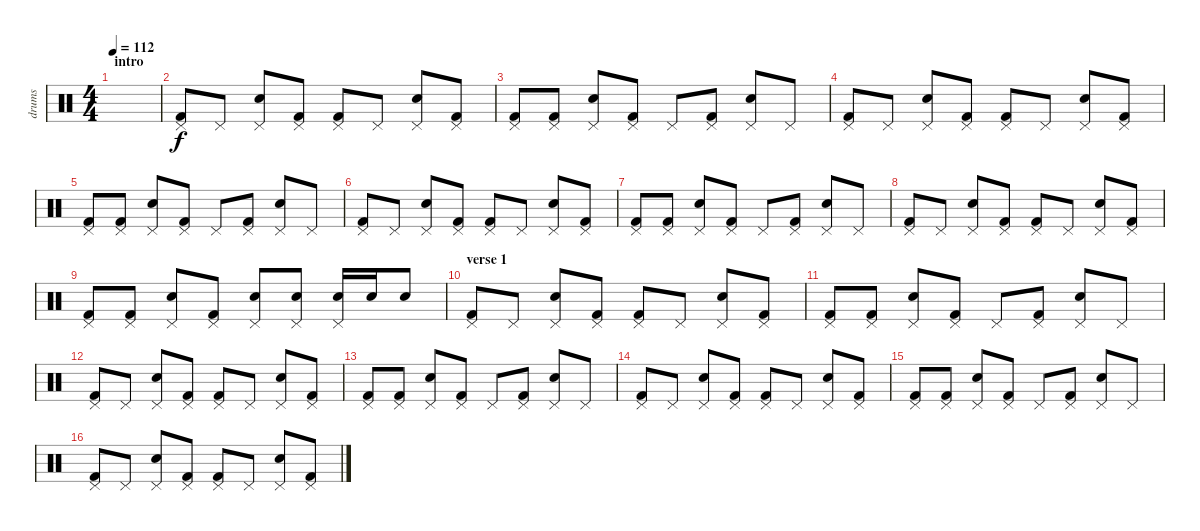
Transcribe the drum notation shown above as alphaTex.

\track ("drums" "drums") {instrument percussion}
\staff {score}
\articulation defaults
\ts (4 4)
\section ("" "intro")
\tempo 112
\clef neutral
\ks c
|
("Kick (hit) 2" "Pedal Hi-Hat (hit)").8 "Pedal Hi-Hat (hit)".8 ("Snare (hit) 2" "Pedal Hi-Hat (hit)").8 ("Kick (hit) 2" "Pedal Hi-Hat (hit)").8 ("Kick (hit) 2" "Pedal Hi-Hat (hit)").8 "Pedal Hi-Hat (hit)".8 ("Snare (hit) 2" "Pedal Hi-Hat (hit)").8 ("Kick (hit) 2" "Pedal Hi-Hat (hit)").8 |
("Kick (hit) 2" "Pedal Hi-Hat (hit)").8 ("Kick (hit) 2" "Pedal Hi-Hat (hit)").8 ("Snare (hit) 2" "Pedal Hi-Hat (hit)").8 ("Kick (hit) 2" "Pedal Hi-Hat (hit)").8 "Pedal Hi-Hat (hit)".8 ("Kick (hit) 2" "Pedal Hi-Hat (hit)").8 ("Snare (hit) 2" "Pedal Hi-Hat (hit)").8 "Pedal Hi-Hat (hit)".8 |
("Kick (hit) 2" "Pedal Hi-Hat (hit)").8 "Pedal Hi-Hat (hit)".8 ("Snare (hit) 2" "Pedal Hi-Hat (hit)").8 ("Kick (hit) 2" "Pedal Hi-Hat (hit)").8 ("Kick (hit) 2" "Pedal Hi-Hat (hit)").8 "Pedal Hi-Hat (hit)".8 ("Snare (hit) 2" "Pedal Hi-Hat (hit)").8 ("Kick (hit) 2" "Pedal Hi-Hat (hit)").8 |
("Kick (hit) 2" "Pedal Hi-Hat (hit)").8 ("Kick (hit) 2" "Pedal Hi-Hat (hit)").8 ("Snare (hit) 2" "Pedal Hi-Hat (hit)").8 ("Kick (hit) 2" "Pedal Hi-Hat (hit)").8 "Pedal Hi-Hat (hit)".8 ("Kick (hit) 2" "Pedal Hi-Hat (hit)").8 ("Snare (hit) 2" "Pedal Hi-Hat (hit)").8 "Pedal Hi-Hat (hit)".8 |
("Kick (hit) 2" "Pedal Hi-Hat (hit)").8 "Pedal Hi-Hat (hit)".8 ("Snare (hit) 2" "Pedal Hi-Hat (hit)").8 ("Kick (hit) 2" "Pedal Hi-Hat (hit)").8 ("Kick (hit) 2" "Pedal Hi-Hat (hit)").8 "Pedal Hi-Hat (hit)".8 ("Snare (hit) 2" "Pedal Hi-Hat (hit)").8 ("Kick (hit) 2" "Pedal Hi-Hat (hit)").8 |
("Kick (hit) 2" "Pedal Hi-Hat (hit)").8 ("Kick (hit) 2" "Pedal Hi-Hat (hit)").8 ("Snare (hit) 2" "Pedal Hi-Hat (hit)").8 ("Kick (hit) 2" "Pedal Hi-Hat (hit)").8 "Pedal Hi-Hat (hit)".8 ("Kick (hit) 2" "Pedal Hi-Hat (hit)").8 ("Snare (hit) 2" "Pedal Hi-Hat (hit)").8 "Pedal Hi-Hat (hit)".8 |
("Kick (hit) 2" "Pedal Hi-Hat (hit)").8 "Pedal Hi-Hat (hit)".8 ("Snare (hit) 2" "Pedal Hi-Hat (hit)").8 ("Kick (hit) 2" "Pedal Hi-Hat (hit)").8 ("Kick (hit) 2" "Pedal Hi-Hat (hit)").8 "Pedal Hi-Hat (hit)".8 ("Snare (hit) 2" "Pedal Hi-Hat (hit)").8 ("Kick (hit) 2" "Pedal Hi-Hat (hit)").8 |
("Kick (hit) 2" "Pedal Hi-Hat (hit)").8 ("Kick (hit) 2" "Pedal Hi-Hat (hit)").8 ("Snare (hit) 2" "Pedal Hi-Hat (hit)").8 ("Kick (hit) 2" "Pedal Hi-Hat (hit)").8 ("Snare (hit) 2" "Pedal Hi-Hat (hit)").8 ("Snare (hit) 2" "Pedal Hi-Hat (hit)").8 ("Snare (hit) 2" "Pedal Hi-Hat (hit)").16 "Snare (hit) 2".16 "Snare (hit) 2".8 |
\section ("" "verse 1")
("Kick (hit) 2" "Pedal Hi-Hat (hit)").8 "Pedal Hi-Hat (hit)".8 ("Snare (hit) 2" "Pedal Hi-Hat (hit)").8 ("Kick (hit) 2" "Pedal Hi-Hat (hit)").8 ("Kick (hit) 2" "Pedal Hi-Hat (hit)").8 "Pedal Hi-Hat (hit)".8 ("Snare (hit) 2" "Pedal Hi-Hat (hit)").8 ("Kick (hit) 2" "Pedal Hi-Hat (hit)").8 |
("Kick (hit) 2" "Pedal Hi-Hat (hit)").8 ("Kick (hit) 2" "Pedal Hi-Hat (hit)").8 ("Snare (hit) 2" "Pedal Hi-Hat (hit)").8 ("Kick (hit) 2" "Pedal Hi-Hat (hit)").8 "Pedal Hi-Hat (hit)".8 ("Kick (hit) 2" "Pedal Hi-Hat (hit)").8 ("Snare (hit) 2" "Pedal Hi-Hat (hit)").8 "Pedal Hi-Hat (hit)".8 |
("Kick (hit) 2" "Pedal Hi-Hat (hit)").8 "Pedal Hi-Hat (hit)".8 ("Snare (hit) 2" "Pedal Hi-Hat (hit)").8 ("Kick (hit) 2" "Pedal Hi-Hat (hit)").8 ("Kick (hit) 2" "Pedal Hi-Hat (hit)").8 "Pedal Hi-Hat (hit)".8 ("Snare (hit) 2" "Pedal Hi-Hat (hit)").8 ("Kick (hit) 2" "Pedal Hi-Hat (hit)").8 |
("Kick (hit) 2" "Pedal Hi-Hat (hit)").8 ("Kick (hit) 2" "Pedal Hi-Hat (hit)").8 ("Snare (hit) 2" "Pedal Hi-Hat (hit)").8 ("Kick (hit) 2" "Pedal Hi-Hat (hit)").8 "Pedal Hi-Hat (hit)".8 ("Kick (hit) 2" "Pedal Hi-Hat (hit)").8 ("Snare (hit) 2" "Pedal Hi-Hat (hit)").8 "Pedal Hi-Hat (hit)".8 |
("Kick (hit) 2" "Pedal Hi-Hat (hit)").8 "Pedal Hi-Hat (hit)".8 ("Snare (hit) 2" "Pedal Hi-Hat (hit)").8 ("Kick (hit) 2" "Pedal Hi-Hat (hit)").8 ("Kick (hit) 2" "Pedal Hi-Hat (hit)").8 "Pedal Hi-Hat (hit)".8 ("Snare (hit) 2" "Pedal Hi-Hat (hit)").8 ("Kick (hit) 2" "Pedal Hi-Hat (hit)").8 |
("Kick (hit) 2" "Pedal Hi-Hat (hit)").8 ("Kick (hit) 2" "Pedal Hi-Hat (hit)").8 ("Snare (hit) 2" "Pedal Hi-Hat (hit)").8 ("Kick (hit) 2" "Pedal Hi-Hat (hit)").8 "Pedal Hi-Hat (hit)".8 ("Kick (hit) 2" "Pedal Hi-Hat (hit)").8 ("Snare (hit) 2" "Pedal Hi-Hat (hit)").8 "Pedal Hi-Hat (hit)".8 |
("Kick (hit) 2" "Pedal Hi-Hat (hit)").8 "Pedal Hi-Hat (hit)".8 ("Snare (hit) 2" "Pedal Hi-Hat (hit)").8 ("Kick (hit) 2" "Pedal Hi-Hat (hit)").8 ("Kick (hit) 2" "Pedal Hi-Hat (hit)").8 "Pedal Hi-Hat (hit)".8 ("Snare (hit) 2" "Pedal Hi-Hat (hit)").8 ("Kick (hit) 2" "Pedal Hi-Hat (hit)").8
